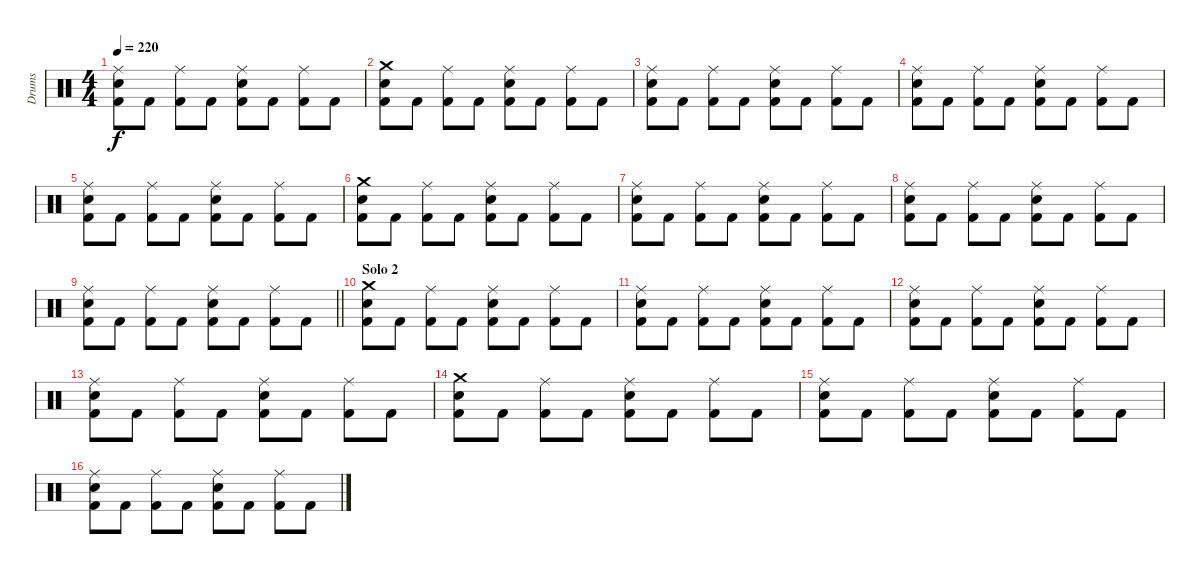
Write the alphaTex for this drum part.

\track ("Drums" "Drums") {instrument percussion}
\staff {score}
\articulation defaults
\ts (4 4)
\tempo 220
\clef neutral
\ks c
("Kick (hit) 2" "Snare (hit) 2" "Ride (middle)").8{dy f} "Kick (hit) 2".8 ("Kick (hit) 2" "Ride (middle)").8 "Kick (hit) 2".8 ("Kick (hit) 2" "Snare (hit) 2" "Ride (middle)").8 "Kick (hit) 2".8 ("Kick (hit) 2" "Ride (middle)").8 "Kick (hit) 2".8 |
("Kick (hit) 2" "Snare (hit) 2" "Crash medium (hit)").8 "Kick (hit) 2".8 ("Kick (hit) 2" "Ride (middle)").8 "Kick (hit) 2".8 ("Kick (hit) 2" "Snare (hit) 2" "Ride (middle)").8 "Kick (hit) 2".8 ("Kick (hit) 2" "Ride (middle)").8 "Kick (hit) 2".8 |
("Kick (hit) 2" "Snare (hit) 2" "Ride (middle)").8 "Kick (hit) 2".8 ("Kick (hit) 2" "Ride (middle)").8 "Kick (hit) 2".8 ("Kick (hit) 2" "Snare (hit) 2" "Ride (middle)").8 "Kick (hit) 2".8 ("Kick (hit) 2" "Ride (middle)").8 "Kick (hit) 2".8 |
("Kick (hit) 2" "Snare (hit) 2" "Ride (middle)").8 "Kick (hit) 2".8 ("Kick (hit) 2" "Ride (middle)").8 "Kick (hit) 2".8 ("Kick (hit) 2" "Snare (hit) 2" "Ride (middle)").8 "Kick (hit) 2".8 ("Kick (hit) 2" "Ride (middle)").8 "Kick (hit) 2".8 |
("Kick (hit) 2" "Snare (hit) 2" "Ride (middle)").8 "Kick (hit) 2".8 ("Kick (hit) 2" "Ride (middle)").8 "Kick (hit) 2".8 ("Kick (hit) 2" "Snare (hit) 2" "Ride (middle)").8 "Kick (hit) 2".8 ("Kick (hit) 2" "Ride (middle)").8 "Kick (hit) 2".8 |
("Kick (hit) 2" "Snare (hit) 2" "Crash medium (hit)").8 "Kick (hit) 2".8 ("Kick (hit) 2" "Ride (middle)").8 "Kick (hit) 2".8 ("Kick (hit) 2" "Snare (hit) 2" "Ride (middle)").8 "Kick (hit) 2".8 ("Kick (hit) 2" "Ride (middle)").8 "Kick (hit) 2".8 |
("Kick (hit) 2" "Snare (hit) 2" "Ride (middle)").8 "Kick (hit) 2".8 ("Kick (hit) 2" "Ride (middle)").8 "Kick (hit) 2".8 ("Kick (hit) 2" "Snare (hit) 2" "Ride (middle)").8 "Kick (hit) 2".8 ("Kick (hit) 2" "Ride (middle)").8 "Kick (hit) 2".8 |
("Kick (hit) 2" "Snare (hit) 2" "Ride (middle)").8 "Kick (hit) 2".8 ("Kick (hit) 2" "Ride (middle)").8 "Kick (hit) 2".8 ("Kick (hit) 2" "Snare (hit) 2" "Ride (middle)").8 "Kick (hit) 2".8 ("Kick (hit) 2" "Ride (middle)").8 "Kick (hit) 2".8 |
\barLineRight lightlight
("Kick (hit) 2" "Snare (hit) 2" "Ride (middle)").8 "Kick (hit) 2".8 ("Kick (hit) 2" "Ride (middle)").8 "Kick (hit) 2".8 ("Kick (hit) 2" "Snare (hit) 2" "Ride (middle)").8 "Kick (hit) 2".8 ("Kick (hit) 2" "Ride (middle)").8 "Kick (hit) 2".8 |
\section ("" "Solo 2")
("Kick (hit) 2" "Snare (hit) 2" "Crash medium (hit)").8 "Kick (hit) 2".8 ("Kick (hit) 2" "Ride (middle)").8 "Kick (hit) 2".8 ("Kick (hit) 2" "Snare (hit) 2" "Ride (middle)").8 "Kick (hit) 2".8 ("Kick (hit) 2" "Ride (middle)").8 "Kick (hit) 2".8 |
("Kick (hit) 2" "Snare (hit) 2" "Ride (middle)").8 "Kick (hit) 2".8 ("Kick (hit) 2" "Ride (middle)").8 "Kick (hit) 2".8 ("Kick (hit) 2" "Snare (hit) 2" "Ride (middle)").8 "Kick (hit) 2".8 ("Kick (hit) 2" "Ride (middle)").8 "Kick (hit) 2".8 |
("Kick (hit) 2" "Snare (hit) 2" "Ride (middle)").8 "Kick (hit) 2".8 ("Kick (hit) 2" "Ride (middle)").8 "Kick (hit) 2".8 ("Kick (hit) 2" "Snare (hit) 2" "Ride (middle)").8 "Kick (hit) 2".8 ("Kick (hit) 2" "Ride (middle)").8 "Kick (hit) 2".8 |
("Kick (hit) 2" "Snare (hit) 2" "Ride (middle)").8 "Kick (hit) 2".8 ("Kick (hit) 2" "Ride (middle)").8 "Kick (hit) 2".8 ("Kick (hit) 2" "Snare (hit) 2" "Ride (middle)").8 "Kick (hit) 2".8 ("Kick (hit) 2" "Ride (middle)").8 "Kick (hit) 2".8 |
("Kick (hit) 2" "Snare (hit) 2" "Crash medium (hit)").8 "Kick (hit) 2".8 ("Kick (hit) 2" "Ride (middle)").8 "Kick (hit) 2".8 ("Kick (hit) 2" "Snare (hit) 2" "Ride (middle)").8 "Kick (hit) 2".8 ("Kick (hit) 2" "Ride (middle)").8 "Kick (hit) 2".8 |
("Kick (hit) 2" "Snare (hit) 2" "Ride (middle)").8 "Kick (hit) 2".8 ("Kick (hit) 2" "Ride (middle)").8 "Kick (hit) 2".8 ("Kick (hit) 2" "Snare (hit) 2" "Ride (middle)").8 "Kick (hit) 2".8 ("Kick (hit) 2" "Ride (middle)").8 "Kick (hit) 2".8 |
("Kick (hit) 2" "Snare (hit) 2" "Ride (middle)").8 "Kick (hit) 2".8 ("Kick (hit) 2" "Ride (middle)").8 "Kick (hit) 2".8 ("Kick (hit) 2" "Snare (hit) 2" "Ride (middle)").8 "Kick (hit) 2".8 ("Kick (hit) 2" "Ride (middle)").8 "Kick (hit) 2".8
